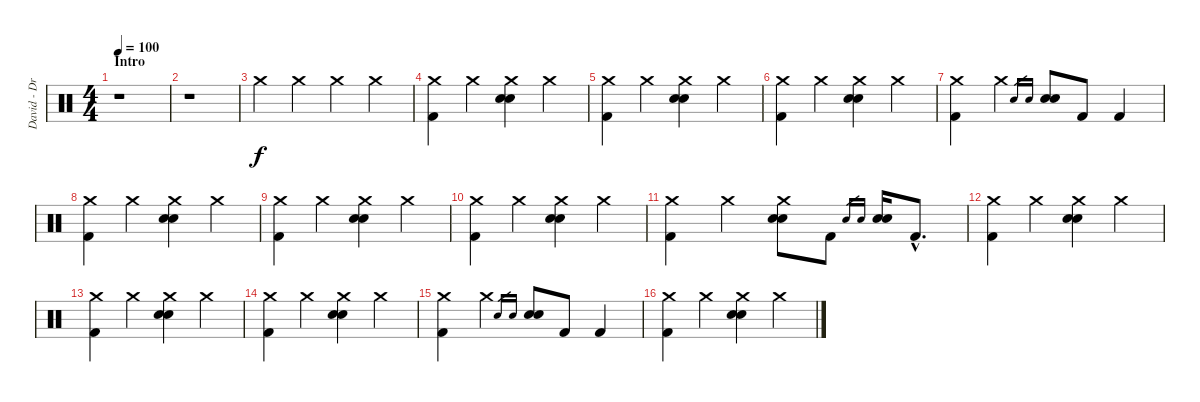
\track ("David - Drums" "David - Dr") {instrument percussion}
\staff {score}
\articulation defaults
\ts (4 4)
\section ("" "Intro")
\tempo 100
\tempo 94
\tempo 100
\clef neutral
\ks c
r.1{dy f volume 16 balance 8} |
r.1 |
"Crash medium (hit)".4 "Crash medium (hit)".4 "Crash medium (hit)".4 "Crash medium (hit)".4 |
("Crash medium (hit)" "Kick (hit) 2").4 "Crash medium (hit)".4 ("Crash medium (hit)" "Electric Snare (hit)" "Snare (hit) 2").4 "Crash medium (hit)".4 |
("Crash medium (hit)" "Kick (hit) 2").4 "Crash medium (hit)".4 ("Crash medium (hit)" "Electric Snare (hit)" "Snare (hit) 2").4 "Crash medium (hit)".4 |
("Crash medium (hit)" "Kick (hit) 2").4 "Crash medium (hit)".4 ("Crash medium (hit)" "Electric Snare (hit)" "Snare (hit) 2").4 "Crash medium (hit)".4 |
("Crash medium (hit)" "Kick (hit) 2").4 "Crash medium (hit)".4 "Electric Snare (hit)".16{gr} "Snare (hit) 2".16{gr} ("Electric Snare (hit)" "Snare (hit) 2").8 "Kick (hit) 2".8 "Kick (hit) 2".4 |
("Crash medium (hit)" "Kick (hit) 2").4 "Crash medium (hit)".4 ("Crash medium (hit)" "Electric Snare (hit)" "Snare (hit) 2").4 "Crash medium (hit)".4 |
("Crash medium (hit)" "Kick (hit) 2").4 "Crash medium (hit)".4 ("Crash medium (hit)" "Electric Snare (hit)" "Snare (hit) 2").4 "Crash medium (hit)".4 |
("Crash medium (hit)" "Kick (hit) 2").4 "Crash medium (hit)".4 ("Crash medium (hit)" "Electric Snare (hit)" "Snare (hit) 2").4 "Crash medium (hit)".4 |
("Crash medium (hit)" "Kick (hit) 2").4 "Crash medium (hit)".4 ("Crash medium (hit)" "Electric Snare (hit)" "Snare (hit) 2").8 "Kick (hit) 2".8 "Electric Snare (hit)".16{gr} "Snare (hit) 2".16{gr} ("Electric Snare (hit)" "Snare (hit) 2").16 "Kick (hit) 2"{hac}.8{d} |
("Crash medium (hit)" "Kick (hit) 2").4 "Crash medium (hit)".4 ("Crash medium (hit)" "Electric Snare (hit)" "Snare (hit) 2").4 "Crash medium (hit)".4 |
("Crash medium (hit)" "Kick (hit) 2").4 "Crash medium (hit)".4 ("Crash medium (hit)" "Electric Snare (hit)" "Snare (hit) 2").4 "Crash medium (hit)".4 |
("Crash medium (hit)" "Kick (hit) 2").4 "Crash medium (hit)".4 ("Crash medium (hit)" "Electric Snare (hit)" "Snare (hit) 2").4 "Crash medium (hit)".4 |
("Crash medium (hit)" "Kick (hit) 2").4 "Crash medium (hit)".4 "Electric Snare (hit)".16{gr} "Snare (hit) 2".16{gr} ("Electric Snare (hit)" "Snare (hit) 2").8 "Kick (hit) 2".8 "Kick (hit) 2".4 |
("Crash medium (hit)" "Kick (hit) 2").4 "Crash medium (hit)".4 ("Crash medium (hit)" "Electric Snare (hit)" "Snare (hit) 2").4 "Crash medium (hit)".4
